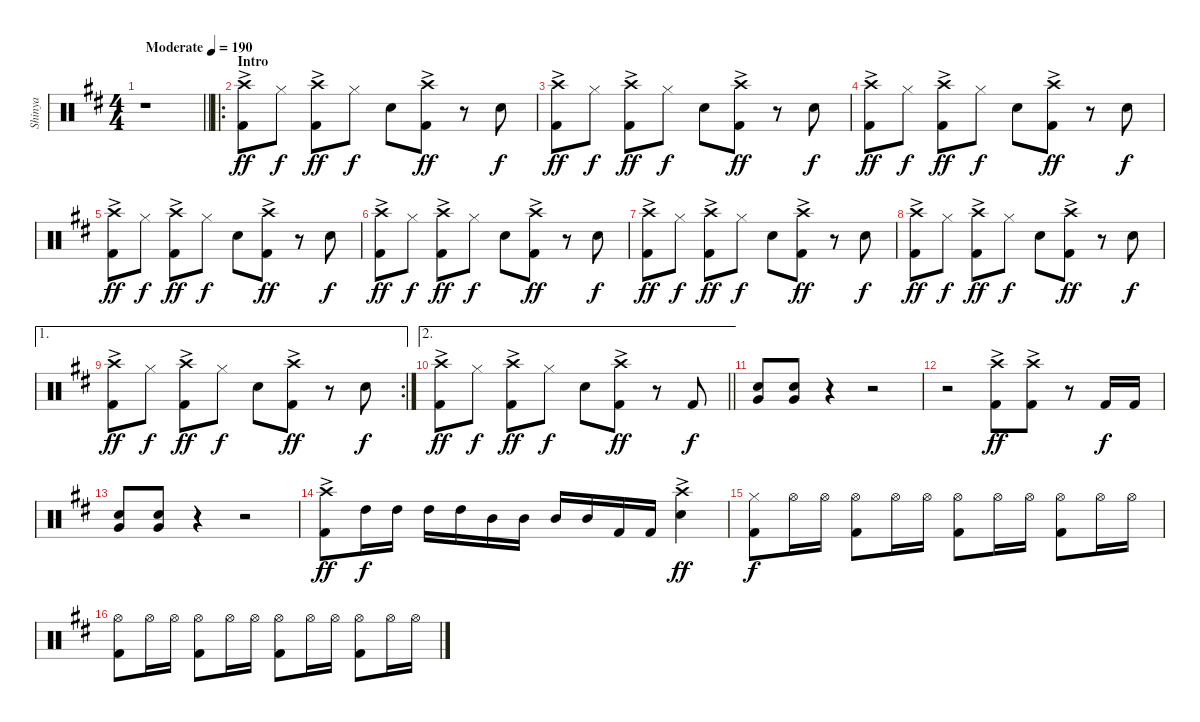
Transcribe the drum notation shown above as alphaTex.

\track ("Shinya" "Shinya") {instrument percussion}
\staff {score}
\articulation defaults
\ts (4 4)
\tempo (190 "Moderate")
\clef neutral
\barLineRight lightlight
\ks d
r.1{dy ff} |
\ro
\section ("" "Intro")
("Crash high (hit)"{ac} "Kick (hit) 2").8 "Hi-Hat (closed)".8{dy f} ("Crash high (hit)"{ac} "Kick (hit) 2").8{dy ff} "Hi-Hat (closed)".8{dy f} "Snare (hit) 2".8 ("Crash high (hit)"{ac} "Kick (hit) 2").8{dy ff} r.8 "Snare (hit) 2".8{dy f} |
("Crash high (hit)"{ac} "Kick (hit) 2").8{dy ff} "Hi-Hat (closed)".8{dy f} ("Crash high (hit)"{ac} "Kick (hit) 2").8{dy ff} "Hi-Hat (closed)".8{dy f} "Snare (hit) 2".8 ("Crash high (hit)"{ac} "Kick (hit) 2").8{dy ff} r.8 "Snare (hit) 2".8{dy f} |
("Crash high (hit)"{ac} "Kick (hit) 2").8{dy ff} "Hi-Hat (closed)".8{dy f} ("Crash high (hit)"{ac} "Kick (hit) 2").8{dy ff} "Hi-Hat (closed)".8{dy f} "Snare (hit) 2".8 ("Crash high (hit)"{ac} "Kick (hit) 2").8{dy ff} r.8 "Snare (hit) 2".8{dy f} |
("Crash high (hit)"{ac} "Kick (hit) 2").8{dy ff} "Hi-Hat (closed)".8{dy f} ("Crash high (hit)"{ac} "Kick (hit) 2").8{dy ff} "Hi-Hat (closed)".8{dy f} "Snare (hit) 2".8 ("Crash high (hit)"{ac} "Kick (hit) 2").8{dy ff} r.8 "Snare (hit) 2".8{dy f} |
("Crash high (hit)"{ac} "Kick (hit) 2").8{dy ff} "Hi-Hat (closed)".8{dy f} ("Crash high (hit)"{ac} "Kick (hit) 2").8{dy ff} "Hi-Hat (closed)".8{dy f} "Snare (hit) 2".8 ("Crash high (hit)"{ac} "Kick (hit) 2").8{dy ff} r.8 "Snare (hit) 2".8{dy f} |
("Crash high (hit)"{ac} "Kick (hit) 2").8{dy ff} "Hi-Hat (closed)".8{dy f} ("Crash high (hit)"{ac} "Kick (hit) 2").8{dy ff} "Hi-Hat (closed)".8{dy f} "Snare (hit) 2".8 ("Crash high (hit)"{ac} "Kick (hit) 2").8{dy ff} r.8 "Snare (hit) 2".8{dy f} |
("Crash high (hit)"{ac} "Kick (hit) 2").8{dy ff} "Hi-Hat (closed)".8{dy f} ("Crash high (hit)"{ac} "Kick (hit) 2").8{dy ff} "Hi-Hat (closed)".8{dy f} "Snare (hit) 2".8 ("Crash high (hit)"{ac} "Kick (hit) 2").8{dy ff} r.8 "Snare (hit) 2".8{dy f} |
\ae 1
\rc 2
("Crash high (hit)"{ac} "Kick (hit) 2").8{dy ff} "Hi-Hat (closed)".8{dy f} ("Crash high (hit)"{ac} "Kick (hit) 2").8{dy ff} "Hi-Hat (closed)".8{dy f} "Snare (hit) 2".8 ("Crash high (hit)"{ac} "Kick (hit) 2").8{dy ff} r.8 "Snare (hit) 2".8{dy f} |
\ae 2
\barLineRight lightlight
("Crash high (hit)"{ac} "Kick (hit) 2").8{dy ff} "Hi-Hat (closed)".8{dy f} ("Crash high (hit)"{ac} "Kick (hit) 2").8{dy ff} "Hi-Hat (closed)".8{dy f} "Snare (hit) 2".8 ("Crash high (hit)"{ac} "Kick (hit) 2").8{dy ff} r.8 "Kick (hit) 2".8{dy f} |
("Snare (hit) 2" "Very Low Tom (hit)").8 ("Snare (hit) 2" "Very Low Tom (hit)").8 r.4 r.2 |
r.2 ("Crash high (hit)"{ac} "Kick (hit) 2").8{dy ff} ("Crash high (hit)"{ac} "Kick (hit) 2").8 r.8 "Kick (hit) 2".16{dy f} "Kick (hit) 2".16 |
("Snare (hit) 2" "Very Low Tom (hit)").8 ("Snare (hit) 2" "Very Low Tom (hit)").8 r.4 r.2 |
("Crash high (hit)"{ac} "Kick (hit) 2").8{dy ff} "High Tom (hit)".16{dy f} "High Tom (hit)".16 "High Tom (hit)".16 "High Tom (hit)".16 "Mid Tom (hit)".16 "Mid Tom (hit)".16 "Mid Tom (hit)".16 "Mid Tom (hit)".16 "Kick (hit) 2".16 "Kick (hit) 2".16 ("Crash high (hit)"{ac} "Snare (hit) 2").4{dy ff} |
("Hi-Hat (closed)" "Kick (hit) 2").8{dy f} "Hi-Hat (open)".16 "Hi-Hat (open)".16 ("Hi-Hat (open)" "Kick (hit) 2").8 "Hi-Hat (open)".16 "Hi-Hat (open)".16 ("Hi-Hat (open)" "Kick (hit) 2").8 "Hi-Hat (open)".16 "Hi-Hat (open)".16 ("Hi-Hat (open)" "Kick (hit) 2").8 "Hi-Hat (open)".16 "Hi-Hat (open)".16 |
("Hi-Hat (open)" "Kick (hit) 2").8 "Hi-Hat (open)".16 "Hi-Hat (open)".16 ("Hi-Hat (open)" "Kick (hit) 2").8 "Hi-Hat (open)".16 "Hi-Hat (open)".16 ("Hi-Hat (open)" "Kick (hit) 2").8 "Hi-Hat (open)".16 "Hi-Hat (open)".16 ("Hi-Hat (open)" "Kick (hit) 2").8 "Hi-Hat (open)".16 "Hi-Hat (open)".16
